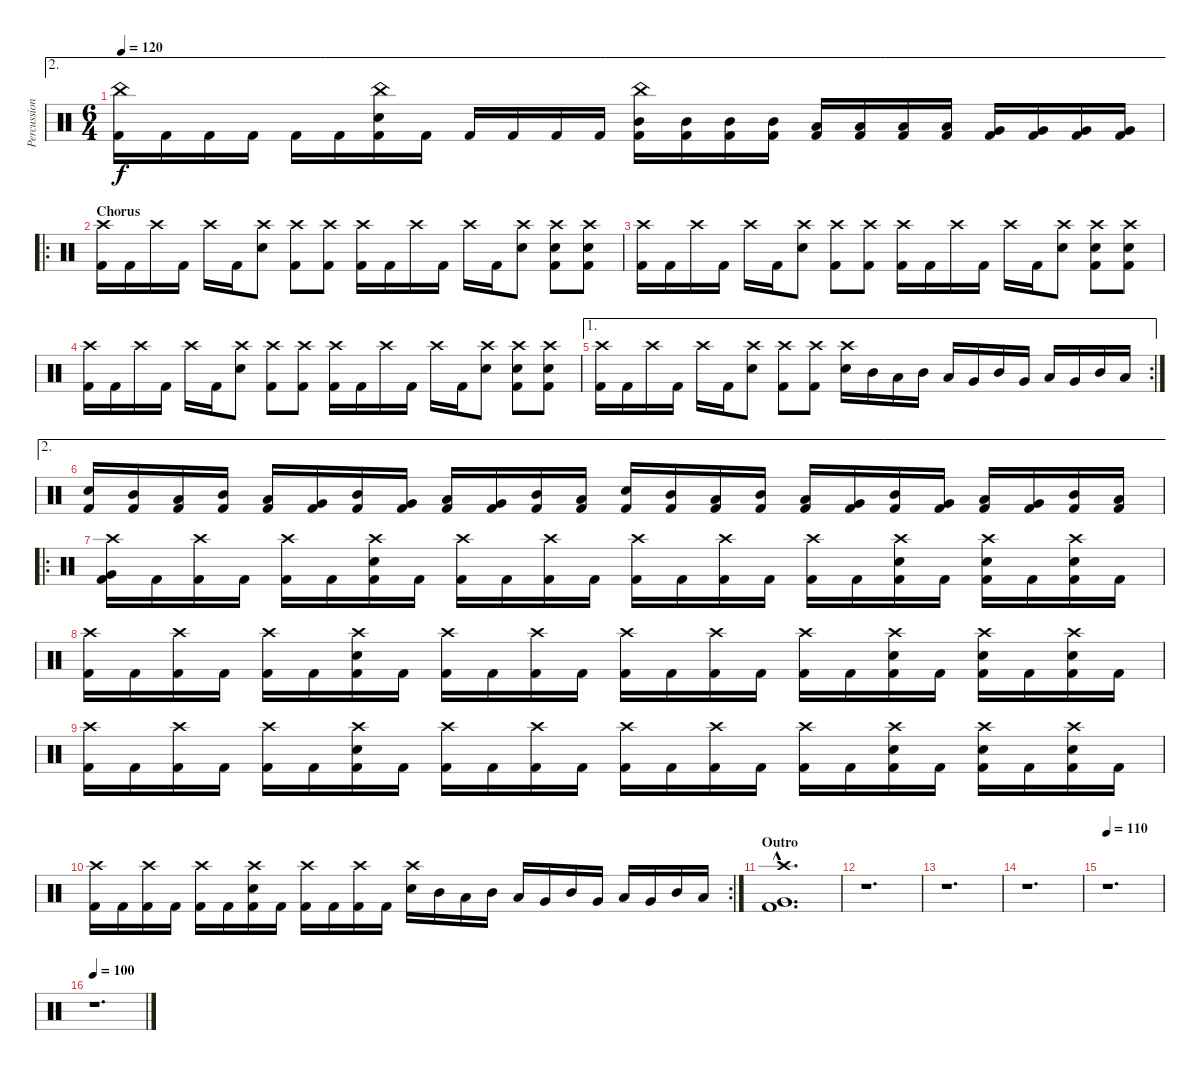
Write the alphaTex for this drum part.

\track ("Percussion" "Percussion") {instrument percussion}
\staff {score}
\articulation defaults
\ae 2
\ts (6 4)
\tempo 120
\clef neutral
\ks c
("China (hit)" "Kick (hit) 2").16{dy f} "Kick (hit) 2".16 "Kick (hit) 2".16 "Kick (hit) 2".16 "Kick (hit) 2".16 "Kick (hit) 2".16 ("China (hit)" "Snare (hit) 2" "Kick (hit) 2").16 "Kick (hit) 2".16 "Kick (hit) 2".16 "Kick (hit) 2".16 "Kick (hit) 2".16 "Kick (hit) 2".16 ("China (hit)" "Mid Tom (hit)" "Kick (hit) 2").16 ("Mid Tom (hit)" "Kick (hit) 2").16 ("Mid Tom (hit)" "Kick (hit) 2").16 ("Mid Tom (hit)" "Kick (hit) 2").16 ("Low Tom (hit)" "Kick (hit) 2").16 ("Low Tom (hit)" "Kick (hit) 2").16 ("Low Tom (hit)" "Kick (hit) 2").16 ("Low Tom (hit)" "Kick (hit) 2").16 ("Very Low Tom (hit)" "Kick (hit) 2").16 ("Very Low Tom (hit)" "Kick (hit) 2").16 ("Very Low Tom (hit)" "Kick (hit) 2").16 ("Very Low Tom (hit)" "Kick (hit) 2").16 |
\ro
\section ("" "Chorus")
("Crash high (hit)" "Kick (hit) 2").16 "Kick (hit) 2".16 "Crash high (hit)".16 "Kick (hit) 2".16 "Crash high (hit)".16 "Kick (hit) 2".16 ("Crash high (hit)" "Snare (hit) 2").8 ("Crash high (hit)" "Kick (hit) 2").8 ("Crash high (hit)" "Kick (hit) 2").8 ("Crash high (hit)" "Kick (hit) 2").16 "Kick (hit) 2".16 "Crash high (hit)".16 "Kick (hit) 2".16 "Crash high (hit)".16 "Kick (hit) 2".16 ("Crash high (hit)" "Snare (hit) 2").8 ("Crash high (hit)" "Snare (hit) 2" "Kick (hit) 2").8 ("Crash high (hit)" "Snare (hit) 2" "Kick (hit) 2").8 |
("Crash high (hit)" "Kick (hit) 2").16 "Kick (hit) 2".16 "Crash high (hit)".16 "Kick (hit) 2".16 "Crash high (hit)".16 "Kick (hit) 2".16 ("Crash high (hit)" "Snare (hit) 2").8 ("Crash high (hit)" "Kick (hit) 2").8 ("Crash high (hit)" "Kick (hit) 2").8 ("Crash high (hit)" "Kick (hit) 2").16 "Kick (hit) 2".16 "Crash high (hit)".16 "Kick (hit) 2".16 "Crash high (hit)".16 "Kick (hit) 2".16 ("Crash high (hit)" "Snare (hit) 2").8 ("Crash high (hit)" "Snare (hit) 2" "Kick (hit) 2").8 ("Crash high (hit)" "Snare (hit) 2" "Kick (hit) 2").8 |
("Crash high (hit)" "Kick (hit) 2").16 "Kick (hit) 2".16 "Crash high (hit)".16 "Kick (hit) 2".16 "Crash high (hit)".16 "Kick (hit) 2".16 ("Crash high (hit)" "Snare (hit) 2").8 ("Crash high (hit)" "Kick (hit) 2").8 ("Crash high (hit)" "Kick (hit) 2").8 ("Crash high (hit)" "Kick (hit) 2").16 "Kick (hit) 2".16 "Crash high (hit)".16 "Kick (hit) 2".16 "Crash high (hit)".16 "Kick (hit) 2".16 ("Crash high (hit)" "Snare (hit) 2").8 ("Crash high (hit)" "Snare (hit) 2" "Kick (hit) 2").8 ("Crash high (hit)" "Snare (hit) 2" "Kick (hit) 2").8 |
\ae 1
\rc 2
("Crash high (hit)" "Kick (hit) 2").16 "Kick (hit) 2".16 "Crash high (hit)".16 "Kick (hit) 2".16 "Crash high (hit)".16 "Kick (hit) 2".16 ("Crash high (hit)" "Snare (hit) 2").8 ("Crash high (hit)" "Kick (hit) 2").8 ("Crash high (hit)" "Kick (hit) 2").8 ("Crash high (hit)" "Snare (hit) 2").16 "Mid Tom (hit)".16 "Low Tom (hit)".16 "Mid Tom (hit)".16 "Low Tom (hit)".16 "Very Low Tom (hit)".16 "Mid Tom (hit)".16 "Very Low Tom (hit)".16 "Low Tom (hit)".16 "Very Low Tom (hit)".16 "Mid Tom (hit)".16 "Low Tom (hit)".16 |
\ae 2
("Snare (hit) 2" "Kick (hit) 2").16 ("Mid Tom (hit)" "Kick (hit) 2").16 ("Low Tom (hit)" "Kick (hit) 2").16 ("Mid Tom (hit)" "Kick (hit) 2").16 ("Low Tom (hit)" "Kick (hit) 2").16 ("Very Low Tom (hit)" "Kick (hit) 2").16 ("Mid Tom (hit)" "Kick (hit) 2").16 ("Very Low Tom (hit)" "Kick (hit) 2").16 ("Low Tom (hit)" "Kick (hit) 2").16 ("Very Low Tom (hit)" "Kick (hit) 2").16 ("Mid Tom (hit)" "Kick (hit) 2").16 ("Low Tom (hit)" "Kick (hit) 2").16 ("Snare (hit) 2" "Kick (hit) 2").16 ("Mid Tom (hit)" "Kick (hit) 2").16 ("Low Tom (hit)" "Kick (hit) 2").16 ("Mid Tom (hit)" "Kick (hit) 2").16 ("Low Tom (hit)" "Kick (hit) 2").16 ("Very Low Tom (hit)" "Kick (hit) 2").16 ("Mid Tom (hit)" "Kick (hit) 2").16 ("Very Low Tom (hit)" "Kick (hit) 2").16 ("Low Tom (hit)" "Kick (hit) 2").16 ("Very Low Tom (hit)" "Kick (hit) 2").16 ("Mid Tom (hit)" "Kick (hit) 2").16 ("Low Tom (hit)" "Kick (hit) 2").16 |
\ro
("Crash high (hit)" "Very Low Tom (hit)" "Kick (hit) 2").16 "Kick (hit) 2".16 ("Crash high (hit)" "Kick (hit) 2").16 "Kick (hit) 2".16 ("Crash high (hit)" "Kick (hit) 2").16 "Kick (hit) 2".16 ("Crash high (hit)" "Snare (hit) 2" "Kick (hit) 2").16 "Kick (hit) 2".16 ("Crash high (hit)" "Kick (hit) 2").16 "Kick (hit) 2".16 ("Crash high (hit)" "Kick (hit) 2").16 "Kick (hit) 2".16 ("Crash high (hit)" "Kick (hit) 2").16 "Kick (hit) 2".16 ("Crash high (hit)" "Kick (hit) 2").16 "Kick (hit) 2".16 ("Crash high (hit)" "Kick (hit) 2").16 "Kick (hit) 2".16 ("Crash high (hit)" "Snare (hit) 2" "Kick (hit) 2").16 "Kick (hit) 2".16 ("Crash high (hit)" "Snare (hit) 2" "Kick (hit) 2").16 "Kick (hit) 2".16 ("Crash high (hit)" "Snare (hit) 2" "Kick (hit) 2").16 "Kick (hit) 2".16 |
("Crash high (hit)" "Kick (hit) 2").16 "Kick (hit) 2".16 ("Crash high (hit)" "Kick (hit) 2").16 "Kick (hit) 2".16 ("Crash high (hit)" "Kick (hit) 2").16 "Kick (hit) 2".16 ("Crash high (hit)" "Snare (hit) 2" "Kick (hit) 2").16 "Kick (hit) 2".16 ("Crash high (hit)" "Kick (hit) 2").16 "Kick (hit) 2".16 ("Crash high (hit)" "Kick (hit) 2").16 "Kick (hit) 2".16 ("Crash high (hit)" "Kick (hit) 2").16 "Kick (hit) 2".16 ("Crash high (hit)" "Kick (hit) 2").16 "Kick (hit) 2".16 ("Crash high (hit)" "Kick (hit) 2").16 "Kick (hit) 2".16 ("Crash high (hit)" "Snare (hit) 2" "Kick (hit) 2").16 "Kick (hit) 2".16 ("Crash high (hit)" "Snare (hit) 2" "Kick (hit) 2").16 "Kick (hit) 2".16 ("Crash high (hit)" "Snare (hit) 2" "Kick (hit) 2").16 "Kick (hit) 2".16 |
("Crash high (hit)" "Kick (hit) 2").16 "Kick (hit) 2".16 ("Crash high (hit)" "Kick (hit) 2").16 "Kick (hit) 2".16 ("Crash high (hit)" "Kick (hit) 2").16 "Kick (hit) 2".16 ("Crash high (hit)" "Snare (hit) 2" "Kick (hit) 2").16 "Kick (hit) 2".16 ("Crash high (hit)" "Kick (hit) 2").16 "Kick (hit) 2".16 ("Crash high (hit)" "Kick (hit) 2").16 "Kick (hit) 2".16 ("Crash high (hit)" "Kick (hit) 2").16 "Kick (hit) 2".16 ("Crash high (hit)" "Kick (hit) 2").16 "Kick (hit) 2".16 ("Crash high (hit)" "Kick (hit) 2").16 "Kick (hit) 2".16 ("Crash high (hit)" "Snare (hit) 2" "Kick (hit) 2").16 "Kick (hit) 2".16 ("Crash high (hit)" "Snare (hit) 2" "Kick (hit) 2").16 "Kick (hit) 2".16 ("Crash high (hit)" "Snare (hit) 2" "Kick (hit) 2").16 "Kick (hit) 2".16 |
\rc 2
("Crash high (hit)" "Kick (hit) 2").16 "Kick (hit) 2".16 ("Crash high (hit)" "Kick (hit) 2").16 "Kick (hit) 2".16 ("Crash high (hit)" "Kick (hit) 2").16 "Kick (hit) 2".16 ("Crash high (hit)" "Snare (hit) 2" "Kick (hit) 2").16 "Kick (hit) 2".16 ("Crash high (hit)" "Kick (hit) 2").16 "Kick (hit) 2".16 ("Crash high (hit)" "Kick (hit) 2").16 "Kick (hit) 2".16 ("Crash high (hit)" "Snare (hit) 2").16 "Mid Tom (hit)".16 "Low Tom (hit)".16 "Mid Tom (hit)".16 "Low Tom (hit)".16 "Very Low Tom (hit)".16 "Mid Tom (hit)".16 "Very Low Tom (hit)".16 "Low Tom (hit)".16 "Very Low Tom (hit)".16 "Mid Tom (hit)".16 "Low Tom (hit)".16 |
\section ("" "Outro")
("Crash high (hit)"{hac} "Very Low Tom (hit)"{hac} "Kick (hit) 2"{hac}).1{d} |
r.1{d} |
r.1{d} |
r.1{d} |
\tempo 110
r.1{d} |
\tempo 100
r.1{d}
